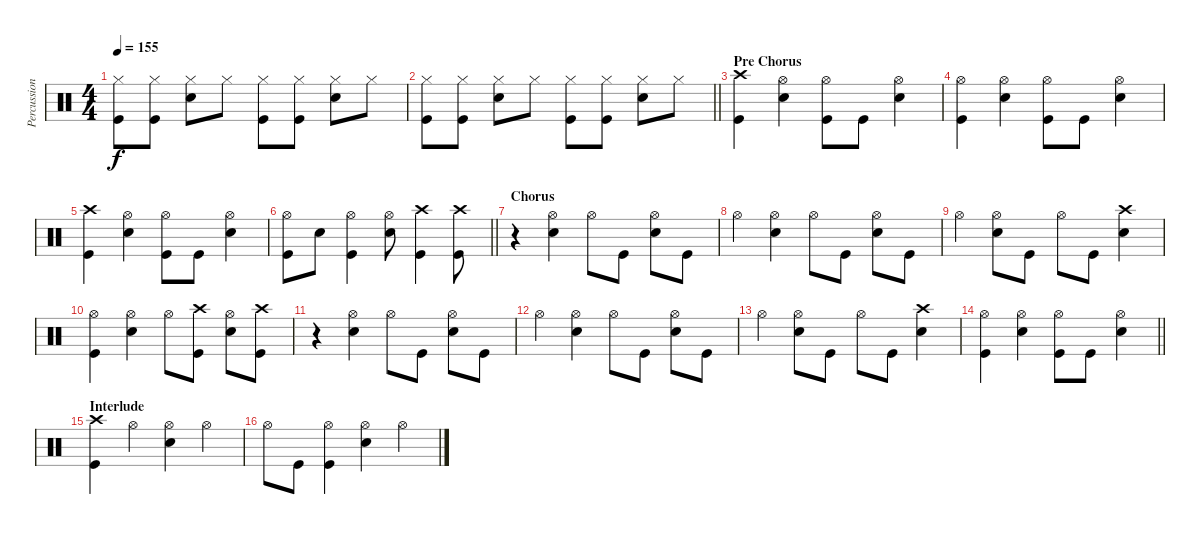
\track ("Percussion" "Percussion") {instrument percussion}
\staff {score}
\articulation defaults
\ts (4 4)
\tempo 155
\clef neutral
\ks c
("Hi-Hat (closed)" "Kick (hit)").8{dy f} ("Hi-Hat (closed)" "Kick (hit)").8 ("Hi-Hat (closed)" "Snare (hit) 2").8 "Hi-Hat (closed)".8 ("Hi-Hat (closed)" "Kick (hit)").8 ("Hi-Hat (closed)" "Kick (hit)").8 ("Hi-Hat (closed)" "Snare (hit) 2").8 "Hi-Hat (closed)".8 |
\barLineRight lightlight
("Hi-Hat (closed)" "Kick (hit)").8 ("Hi-Hat (closed)" "Kick (hit)").8 ("Hi-Hat (closed)" "Snare (hit) 2").8 "Hi-Hat (closed)".8 ("Hi-Hat (closed)" "Kick (hit)").8 ("Hi-Hat (closed)" "Kick (hit)").8 ("Hi-Hat (closed)" "Snare (hit) 2").8 "Hi-Hat (closed)".8 |
\section ("" "Pre Chorus")
("Crash high (hit)" "Kick (hit)").4 ("Hi-Hat (open)" "Snare (hit) 2").4 ("Hi-Hat (open)" "Kick (hit)").8 "Kick (hit)".8 ("Hi-Hat (open)" "Snare (hit) 2").4 |
("Hi-Hat (open)" "Kick (hit)").4 ("Hi-Hat (open)" "Snare (hit) 2").4 ("Hi-Hat (open)" "Kick (hit)").8 "Kick (hit)".8 ("Hi-Hat (open)" "Snare (hit) 2").4 |
("Crash high (hit)" "Kick (hit)").4 ("Hi-Hat (open)" "Snare (hit) 2").4 ("Hi-Hat (open)" "Kick (hit)").8 "Kick (hit)".8 ("Hi-Hat (open)" "Snare (hit) 2").4 |
\barLineRight lightlight
("Hi-Hat (open)" "Kick (hit)").8 "Snare (hit) 2".8 ("Hi-Hat (open)" "Kick (hit)").4 ("Hi-Hat (open)" "Snare (hit) 2").8 ("Crash high (hit)" "Kick (hit)").4 ("Crash high (hit)" "Kick (hit)").8 |
\section ("" "Chorus")
r.4 ("Hi-Hat (open)" "Snare (hit) 2").4 "Hi-Hat (open)".8 "Kick (hit)".8 ("Hi-Hat (open)" "Snare (hit) 2").8 "Kick (hit)".8 |
"Hi-Hat (open)".4 ("Hi-Hat (open)" "Snare (hit) 2").4 "Hi-Hat (open)".8 "Kick (hit)".8 ("Hi-Hat (open)" "Snare (hit) 2").8 "Kick (hit)".8 |
"Hi-Hat (open)".4 ("Hi-Hat (open)" "Snare (hit) 2").8 "Kick (hit)".8 "Hi-Hat (open)".8 "Kick (hit)".8 ("Crash high (hit)" "Snare (hit) 2").4 |
("Hi-Hat (open)" "Kick (hit)").4 ("Hi-Hat (open)" "Snare (hit) 2").4 "Hi-Hat (open)".8 ("Crash high (hit)" "Kick (hit)").8 ("Hi-Hat (open)" "Snare (hit) 2").8 ("Crash high (hit)" "Kick (hit)").8 |
r.4 ("Hi-Hat (open)" "Snare (hit) 2").4 "Hi-Hat (open)".8 "Kick (hit)".8 ("Hi-Hat (open)" "Snare (hit) 2").8 "Kick (hit)".8 |
"Hi-Hat (open)".4 ("Hi-Hat (open)" "Snare (hit) 2").4 "Hi-Hat (open)".8 "Kick (hit)".8 ("Hi-Hat (open)" "Snare (hit) 2").8 "Kick (hit)".8 |
"Hi-Hat (open)".4 ("Hi-Hat (open)" "Snare (hit) 2").8 "Kick (hit)".8 "Hi-Hat (open)".8 "Kick (hit)".8 ("Crash high (hit)" "Snare (hit) 2").4 |
\barLineRight lightlight
("Hi-Hat (open)" "Kick (hit)").4 ("Hi-Hat (open)" "Snare (hit) 2").4 ("Hi-Hat (open)" "Kick (hit)").8 "Kick (hit)".8 ("Hi-Hat (open)" "Snare (hit) 2").4 |
\section ("" "Interlude")
("Crash high (hit)" "Kick (hit)").4 "Hi-Hat (open)".4 ("Hi-Hat (open)" "Snare (hit) 2").4 "Hi-Hat (open)".4 |
"Hi-Hat (open)".8 "Kick (hit)".8 ("Hi-Hat (open)" "Kick (hit)").4 ("Hi-Hat (open)" "Snare (hit) 2").4 "Hi-Hat (open)".4
